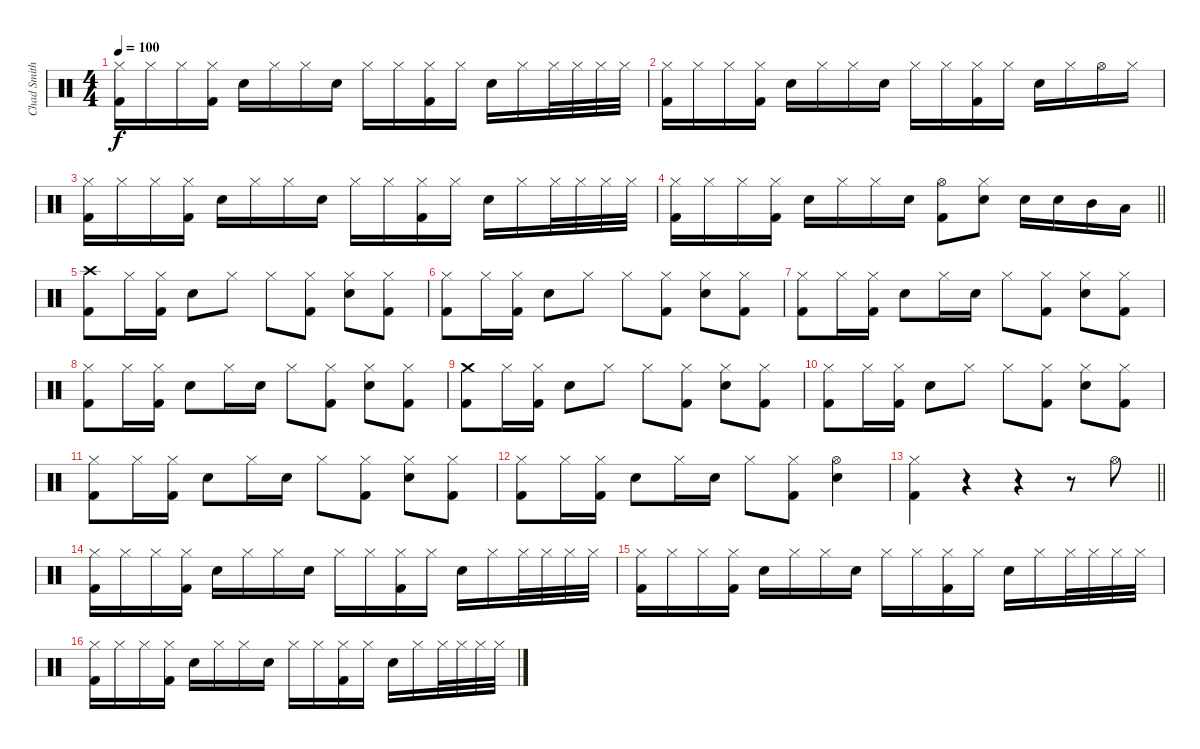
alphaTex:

\track ("Chad Smith" "Chad Smith") {instrument percussion}
\staff {score}
\articulation defaults
\ts (4 4)
\tempo 100
\clef neutral
\ks c
("Hi-Hat (closed)" "Kick (hit) 2").16{dy f} "Hi-Hat (closed)".16 "Hi-Hat (closed)".16 ("Hi-Hat (closed)" "Kick (hit) 2").16 "Snare (hit) 2".16 "Hi-Hat (closed)".16 "Hi-Hat (closed)".16 "Snare (hit) 2".16 "Hi-Hat (closed)".16 "Hi-Hat (closed)".16 ("Hi-Hat (closed)" "Kick (hit) 2").16 "Hi-Hat (closed)".16 "Snare (hit) 2".16 "Hi-Hat (closed)".16 "Hi-Hat (closed)".32 "Hi-Hat (closed)".32 "Hi-Hat (closed)".32 "Hi-Hat (closed)".32 |
("Hi-Hat (closed)" "Kick (hit) 2").16 "Hi-Hat (closed)".16 "Hi-Hat (closed)".16 ("Hi-Hat (closed)" "Kick (hit) 2").16 "Snare (hit) 2".16 "Hi-Hat (closed)".16 "Hi-Hat (closed)".16 "Snare (hit) 2".16 "Hi-Hat (closed)".16 "Hi-Hat (closed)".16 ("Hi-Hat (closed)" "Kick (hit) 2").16 "Hi-Hat (closed)".16 "Snare (hit) 2".16 "Hi-Hat (closed)".16 "Hi-Hat (open)".16 "Hi-Hat (closed)".16 |
("Hi-Hat (closed)" "Kick (hit) 2").16 "Hi-Hat (closed)".16 "Hi-Hat (closed)".16 ("Hi-Hat (closed)" "Kick (hit) 2").16 "Snare (hit) 2".16 "Hi-Hat (closed)".16 "Hi-Hat (closed)".16 "Snare (hit) 2".16 "Hi-Hat (closed)".16 "Hi-Hat (closed)".16 ("Hi-Hat (closed)" "Kick (hit) 2").16 "Hi-Hat (closed)".16 "Snare (hit) 2".16 "Hi-Hat (closed)".16 "Hi-Hat (closed)".32 "Hi-Hat (closed)".32 "Hi-Hat (closed)".32 "Hi-Hat (closed)".32 |
\barLineRight lightlight
("Hi-Hat (closed)" "Kick (hit) 2").16 "Hi-Hat (closed)".16 "Hi-Hat (closed)".16 ("Hi-Hat (closed)" "Kick (hit) 2").16 "Snare (hit) 2".16 "Hi-Hat (closed)".16 "Hi-Hat (closed)".16 "Snare (hit) 2".16 ("Hi-Hat (open)" "Kick (hit) 2").8 ("Hi-Hat (closed)" "Snare (hit) 2").8 "Snare (hit) 2".16 "Snare (hit) 2".16 "Mid Tom (hit)".16 "Low Tom (hit)".16 |
("Crash high (hit)" "Kick (hit) 2").8 "Hi-Hat (closed)".16 ("Hi-Hat (closed)" "Kick (hit) 2").16 "Snare (hit) 2".8 "Hi-Hat (closed)".8 "Hi-Hat (closed)".8 ("Hi-Hat (closed)" "Kick (hit) 2").8 ("Hi-Hat (closed)" "Snare (hit) 2").8 ("Hi-Hat (closed)" "Kick (hit) 2").8 |
("Hi-Hat (closed)" "Kick (hit) 2").8 "Hi-Hat (closed)".16 ("Hi-Hat (closed)" "Kick (hit) 2").16 "Snare (hit) 2".8 "Hi-Hat (closed)".8 "Hi-Hat (closed)".8 ("Hi-Hat (closed)" "Kick (hit) 2").8 ("Hi-Hat (closed)" "Snare (hit) 2").8 ("Hi-Hat (closed)" "Kick (hit) 2").8 |
("Hi-Hat (closed)" "Kick (hit) 2").8 "Hi-Hat (closed)".16 ("Hi-Hat (closed)" "Kick (hit) 2").16 "Snare (hit) 2".8 "Hi-Hat (closed)".16 "Snare (hit) 2".16 "Hi-Hat (closed)".8 ("Hi-Hat (closed)" "Kick (hit) 2").8 ("Hi-Hat (closed)" "Snare (hit) 2").8 ("Hi-Hat (closed)" "Kick (hit) 2").8 |
("Hi-Hat (closed)" "Kick (hit) 2").8 "Hi-Hat (closed)".16 ("Hi-Hat (closed)" "Kick (hit) 2").16 "Snare (hit) 2".8 "Hi-Hat (closed)".16 "Snare (hit) 2".16 "Hi-Hat (closed)".8 ("Hi-Hat (closed)" "Kick (hit) 2").8 ("Hi-Hat (closed)" "Snare (hit) 2").8 ("Hi-Hat (closed)" "Kick (hit) 2").8 |
("Crash medium (hit)" "Kick (hit) 2").8 "Hi-Hat (closed)".16 ("Hi-Hat (closed)" "Kick (hit) 2").16 "Snare (hit) 2".8 "Hi-Hat (closed)".8 "Hi-Hat (closed)".8 ("Hi-Hat (closed)" "Kick (hit) 2").8 ("Hi-Hat (closed)" "Snare (hit) 2").8 ("Hi-Hat (closed)" "Kick (hit) 2").8 |
("Hi-Hat (closed)" "Kick (hit) 2").8 "Hi-Hat (closed)".16 ("Hi-Hat (closed)" "Kick (hit) 2").16 "Snare (hit) 2".8 "Hi-Hat (closed)".8 "Hi-Hat (closed)".8 ("Hi-Hat (closed)" "Kick (hit) 2").8 ("Hi-Hat (closed)" "Snare (hit) 2").8 ("Hi-Hat (closed)" "Kick (hit) 2").8 |
("Hi-Hat (closed)" "Kick (hit) 2").8 "Hi-Hat (closed)".16 ("Hi-Hat (closed)" "Kick (hit) 2").16 "Snare (hit) 2".8 "Hi-Hat (closed)".16 "Snare (hit) 2".16 "Hi-Hat (closed)".8 ("Hi-Hat (closed)" "Kick (hit) 2").8 ("Hi-Hat (closed)" "Snare (hit) 2").8 ("Hi-Hat (closed)" "Kick (hit) 2").8 |
("Hi-Hat (closed)" "Kick (hit) 2").8 "Hi-Hat (closed)".16 ("Hi-Hat (closed)" "Kick (hit) 2").16 "Snare (hit) 2".8 "Hi-Hat (closed)".16 "Snare (hit) 2".16 "Hi-Hat (closed)".8 ("Hi-Hat (closed)" "Kick (hit) 2").8 ("Hi-Hat (open)" "Snare (hit) 2").4 |
\barLineRight lightlight
("Hi-Hat (closed)" "Kick (hit) 2").4 r.4 r.4 r.8 "Hi-Hat (open)".8 |
("Hi-Hat (closed)" "Kick (hit) 2").16 "Hi-Hat (closed)".16 "Hi-Hat (closed)".16 ("Hi-Hat (closed)" "Kick (hit) 2").16 "Snare (hit) 2".16 "Hi-Hat (closed)".16 "Hi-Hat (closed)".16 "Snare (hit) 2".16 "Hi-Hat (closed)".16 "Hi-Hat (closed)".16 ("Hi-Hat (closed)" "Kick (hit) 2").16 "Hi-Hat (closed)".16 "Snare (hit) 2".16 "Hi-Hat (closed)".16 "Hi-Hat (closed)".32 "Hi-Hat (closed)".32 "Hi-Hat (closed)".32 "Hi-Hat (closed)".32 |
("Hi-Hat (closed)" "Kick (hit) 2").16 "Hi-Hat (closed)".16 "Hi-Hat (closed)".16 ("Hi-Hat (closed)" "Kick (hit) 2").16 "Snare (hit) 2".16 "Hi-Hat (closed)".16 "Hi-Hat (closed)".16 "Snare (hit) 2".16 "Hi-Hat (closed)".16 "Hi-Hat (closed)".16 ("Hi-Hat (closed)" "Kick (hit) 2").16 "Hi-Hat (closed)".16 "Snare (hit) 2".16 "Hi-Hat (closed)".16 "Hi-Hat (closed)".32 "Hi-Hat (closed)".32 "Hi-Hat (closed)".32 "Hi-Hat (closed)".32 |
("Hi-Hat (closed)" "Kick (hit) 2").16 "Hi-Hat (closed)".16 "Hi-Hat (closed)".16 ("Hi-Hat (closed)" "Kick (hit) 2").16 "Snare (hit) 2".16 "Hi-Hat (closed)".16 "Hi-Hat (closed)".16 "Snare (hit) 2".16 "Hi-Hat (closed)".16 "Hi-Hat (closed)".16 ("Hi-Hat (closed)" "Kick (hit) 2").16 "Hi-Hat (closed)".16 "Snare (hit) 2".16 "Hi-Hat (closed)".16 "Hi-Hat (closed)".32 "Hi-Hat (closed)".32 "Hi-Hat (closed)".32 "Hi-Hat (closed)".32
